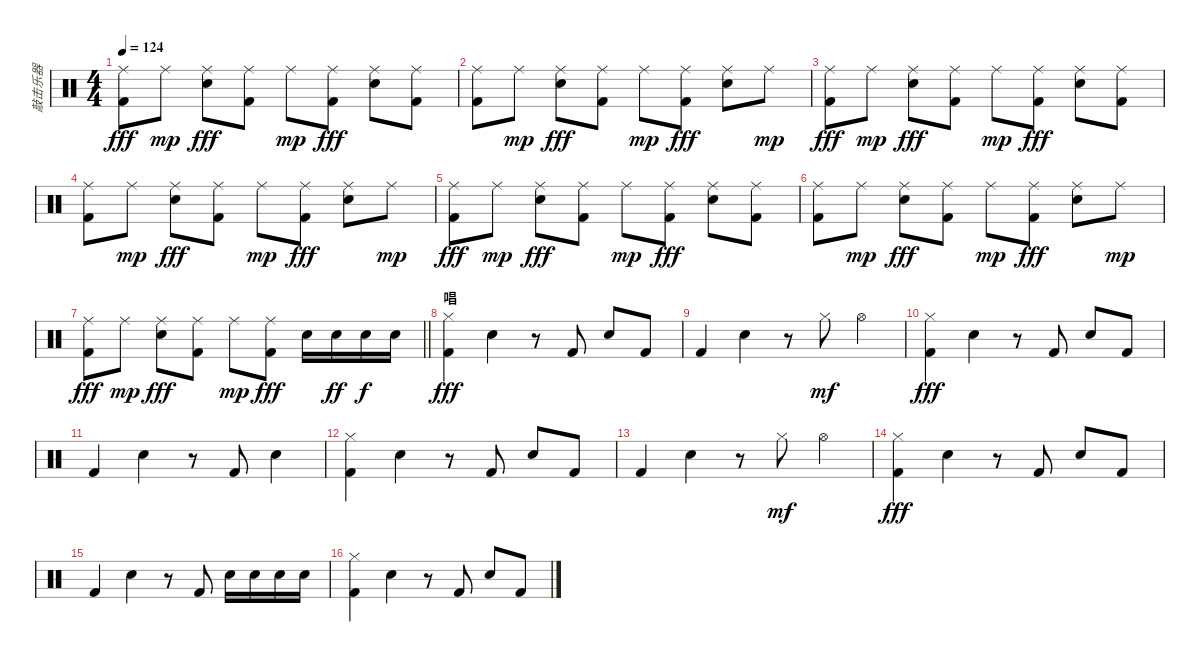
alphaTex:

\track ("敲击乐器" "敲击乐器") {instrument percussion}
\staff {score}
\articulation defaults
\ts (4 4)
\tempo 124
\clef neutral
\ks c
("Ride (middle)" "Kick (hit) 2").8{dy fff} "Ride (middle)".8{dy mp} ("Ride (middle)" "Snare (hit) 2").8{dy fff} ("Ride (middle)" "Kick (hit) 2").8 "Ride (middle)".8{dy mp} ("Ride (middle)" "Kick (hit) 2").8{dy fff} ("Ride (middle)" "Snare (hit) 2").8 ("Ride (middle)" "Kick (hit) 2").8 |
("Ride (middle)" "Kick (hit) 2").8 "Ride (middle)".8{dy mp} ("Ride (middle)" "Snare (hit) 2").8{dy fff} ("Ride (middle)" "Kick (hit) 2").8 "Ride (middle)".8{dy mp} ("Ride (middle)" "Kick (hit) 2").8{dy fff} ("Ride (middle)" "Snare (hit) 2").8 "Ride (middle)".8{dy mp} |
("Ride (middle)" "Kick (hit) 2").8{dy fff} "Ride (middle)".8{dy mp} ("Ride (middle)" "Snare (hit) 2").8{dy fff} ("Ride (middle)" "Kick (hit) 2").8 "Ride (middle)".8{dy mp} ("Ride (middle)" "Kick (hit) 2").8{dy fff} ("Ride (middle)" "Snare (hit) 2").8 ("Ride (middle)" "Kick (hit) 2").8 |
("Ride (middle)" "Kick (hit) 2").8 "Ride (middle)".8{dy mp} ("Ride (middle)" "Snare (hit) 2").8{dy fff} ("Ride (middle)" "Kick (hit) 2").8 "Ride (middle)".8{dy mp} ("Ride (middle)" "Kick (hit) 2").8{dy fff} ("Ride (middle)" "Snare (hit) 2").8 "Ride (middle)".8{dy mp} |
("Ride (middle)" "Kick (hit) 2").8{dy fff} "Ride (middle)".8{dy mp} ("Ride (middle)" "Snare (hit) 2").8{dy fff} ("Ride (middle)" "Kick (hit) 2").8 "Ride (middle)".8{dy mp} ("Ride (middle)" "Kick (hit) 2").8{dy fff} ("Ride (middle)" "Snare (hit) 2").8 ("Ride (middle)" "Kick (hit) 2").8 |
("Ride (middle)" "Kick (hit) 2").8 "Ride (middle)".8{dy mp} ("Ride (middle)" "Snare (hit) 2").8{dy fff} ("Ride (middle)" "Kick (hit) 2").8 "Ride (middle)".8{dy mp} ("Ride (middle)" "Kick (hit) 2").8{dy fff} ("Ride (middle)" "Snare (hit) 2").8 "Ride (middle)".8{dy mp} |
\barLineRight lightlight
("Ride (middle)" "Kick (hit) 2").8{dy fff} "Ride (middle)".8{dy mp} ("Ride (middle)" "Snare (hit) 2").8{dy fff} ("Ride (middle)" "Kick (hit) 2").8 "Ride (middle)".8{dy mp} ("Ride (middle)" "Kick (hit) 2").8{dy fff} "Snare (hit) 2".16 "Snare (hit) 2".16{dy ff} "Snare (hit) 2".16{dy f} "Snare (hit) 2".16 |
\section ("" "唱")
("Hi-Hat (closed)" "Kick (hit) 2").4{dy fff} "Snare (hit) 2".4 r.8 "Kick (hit) 2".8 "Snare (hit) 2".8 "Kick (hit) 2".8 |
"Kick (hit) 2".4 "Snare (hit) 2".4 r.8 "Hi-Hat (closed)".8{dy mf} "Hi-Hat (open)".4 |
("Hi-Hat (closed)" "Kick (hit) 2").4{dy fff} "Snare (hit) 2".4 r.8 "Kick (hit) 2".8 "Snare (hit) 2".8 "Kick (hit) 2".8 |
"Kick (hit) 2".4 "Snare (hit) 2".4 r.8 "Kick (hit) 2".8 "Snare (hit) 2".4 |
("Hi-Hat (closed)" "Kick (hit) 2").4 "Snare (hit) 2".4 r.8 "Kick (hit) 2".8 "Snare (hit) 2".8 "Kick (hit) 2".8 |
"Kick (hit) 2".4 "Snare (hit) 2".4 r.8 "Hi-Hat (closed)".8{dy mf} "Hi-Hat (open)".4 |
("Hi-Hat (closed)" "Kick (hit) 2").4{dy fff} "Snare (hit) 2".4 r.8 "Kick (hit) 2".8 "Snare (hit) 2".8 "Kick (hit) 2".8 |
"Kick (hit) 2".4 "Snare (hit) 2".4 r.8 "Kick (hit) 2".8 "Snare (hit) 2".16 "Snare (hit) 2".16 "Snare (hit) 2".16 "Snare (hit) 2".16 |
("Hi-Hat (closed)" "Kick (hit) 2").4 "Snare (hit) 2".4 r.8 "Kick (hit) 2".8 "Snare (hit) 2".8 "Kick (hit) 2".8
